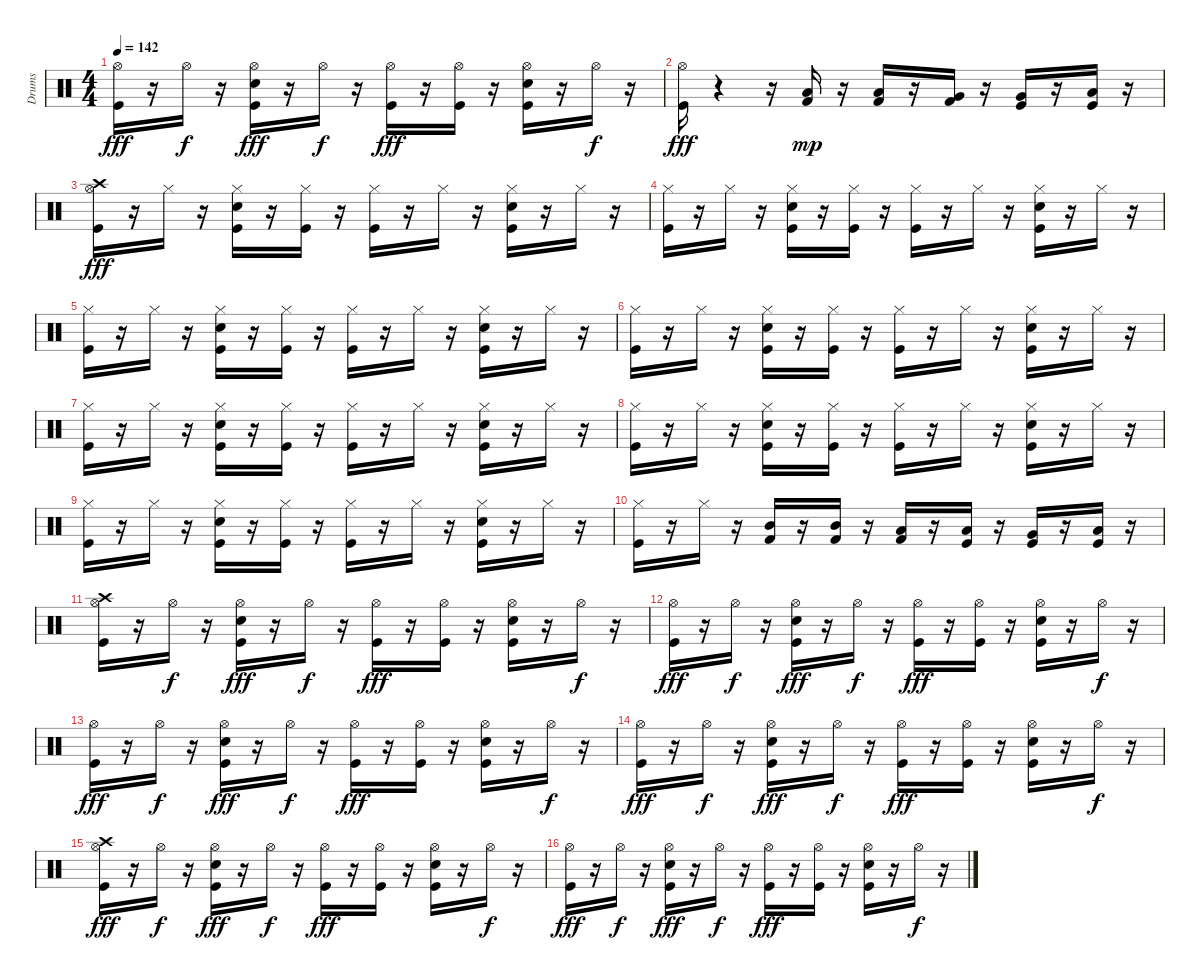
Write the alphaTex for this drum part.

\track ("Drums" "Drums") {instrument percussion}
\staff {score}
\articulation defaults
\ts (4 4)
\tempo 142
\clef neutral
\ks c
("Kick (hit)" "Hi-Hat (open)").16{dy fff} r.16 "Hi-Hat (open)".16{dy f} r.16 ("Snare (hit) 2" "Kick (hit)" "Hi-Hat (open)").16{dy fff} r.16 "Hi-Hat (open)".16{dy f} r.16 ("Kick (hit)" "Hi-Hat (open)").16{dy fff} r.16 ("Kick (hit)" "Hi-Hat (open)").16 r.16 ("Kick (hit)" "Snare (hit) 2" "Hi-Hat (open)").16 r.16 "Hi-Hat (open)".16{dy f} r.16 |
("Kick (hit)" "Hi-Hat (open)").16{dy fff} r.4 r.16 ("Low Tom (hit)" "Kick (hit) 2").16{dy mp} r.16 ("Low Tom (hit)" "Kick (hit) 2").16 r.16 ("Very Low Tom (hit)" "Kick (hit) 2").16 r.16 ("Very Low Tom (hit)" "Kick (hit)").16 r.16 ("Low Floor Tom (hit)" "Kick (hit)").16 r.16 |
("Kick (hit)" "Hi-Hat (open)" "Crash high (hit)").16{dy fff} r.16 "Hi-Hat (closed)".16 r.16 ("Snare (hit) 2" "Kick (hit)" "Hi-Hat (closed)").16 r.16 ("Kick (hit)" "Hi-Hat (closed)").16 r.16 ("Kick (hit)" "Hi-Hat (closed)").16 r.16 "Hi-Hat (closed)".16 r.16 ("Snare (hit) 2" "Kick (hit)" "Hi-Hat (closed)").16 r.16 "Hi-Hat (closed)".16 r.16 |
("Kick (hit)" "Hi-Hat (closed)").16 r.16 "Hi-Hat (closed)".16 r.16 ("Snare (hit) 2" "Kick (hit)" "Hi-Hat (closed)").16 r.16 ("Kick (hit)" "Hi-Hat (closed)").16 r.16 ("Kick (hit)" "Hi-Hat (closed)").16 r.16 "Hi-Hat (closed)".16 r.16 ("Snare (hit) 2" "Kick (hit)" "Hi-Hat (closed)").16 r.16 "Hi-Hat (closed)".16 r.16 |
("Hi-Hat (closed)" "Kick (hit)").16 r.16 "Hi-Hat (closed)".16 r.16 ("Snare (hit) 2" "Kick (hit)" "Hi-Hat (closed)").16 r.16 ("Kick (hit)" "Hi-Hat (closed)").16 r.16 ("Kick (hit)" "Hi-Hat (closed)").16 r.16 "Hi-Hat (closed)".16 r.16 ("Snare (hit) 2" "Kick (hit)" "Hi-Hat (closed)").16 r.16 "Hi-Hat (closed)".16 r.16 |
("Hi-Hat (closed)" "Kick (hit)").16 r.16 "Hi-Hat (closed)".16 r.16 ("Snare (hit) 2" "Kick (hit)" "Hi-Hat (closed)").16 r.16 ("Kick (hit)" "Hi-Hat (closed)").16 r.16 ("Kick (hit)" "Hi-Hat (closed)").16 r.16 "Hi-Hat (closed)".16 r.16 ("Snare (hit) 2" "Kick (hit)" "Hi-Hat (closed)").16 r.16 "Hi-Hat (closed)".16 r.16 |
("Hi-Hat (closed)" "Kick (hit)").16 r.16 "Hi-Hat (closed)".16 r.16 ("Snare (hit) 2" "Kick (hit)" "Hi-Hat (closed)").16 r.16 ("Kick (hit)" "Hi-Hat (closed)").16 r.16 ("Kick (hit)" "Hi-Hat (closed)").16 r.16 "Hi-Hat (closed)".16 r.16 ("Snare (hit) 2" "Kick (hit)" "Hi-Hat (closed)").16 r.16 "Hi-Hat (closed)".16 r.16 |
("Hi-Hat (closed)" "Kick (hit)").16 r.16 "Hi-Hat (closed)".16 r.16 ("Snare (hit) 2" "Kick (hit)" "Hi-Hat (closed)").16 r.16 ("Kick (hit)" "Hi-Hat (closed)").16 r.16 ("Kick (hit)" "Hi-Hat (closed)").16 r.16 "Hi-Hat (closed)".16 r.16 ("Snare (hit) 2" "Kick (hit)" "Hi-Hat (closed)").16 r.16 "Hi-Hat (closed)".16 r.16 |
("Hi-Hat (closed)" "Kick (hit)").16 r.16 "Hi-Hat (closed)".16 r.16 ("Snare (hit) 2" "Kick (hit)" "Hi-Hat (closed)").16 r.16 ("Kick (hit)" "Hi-Hat (closed)").16 r.16 ("Kick (hit)" "Hi-Hat (closed)").16 r.16 "Hi-Hat (closed)".16 r.16 ("Snare (hit) 2" "Kick (hit)" "Hi-Hat (closed)").16 r.16 "Hi-Hat (closed)".16 r.16 |
("Hi-Hat (closed)" "Kick (hit)").16 r.16 "Hi-Hat (closed)".16 r.16 ("Kick (hit) 2" "Mid Tom (hit)").16 r.16 ("Kick (hit) 2" "Mid Tom (hit)").16 r.16 ("Kick (hit) 2" "Low Tom (hit)").16 r.16 ("Kick (hit)" "Low Tom (hit)").16 r.16 ("Kick (hit)" "Very Low Tom (hit)").16 r.16 ("Kick (hit)" "Low Floor Tom (hit)").16 r.16 |
("Crash high (hit)" "Hi-Hat (open)" "Kick (hit)").16 r.16 "Hi-Hat (open)".16{dy f} r.16 ("Snare (hit) 2" "Kick (hit)" "Hi-Hat (open)").16{dy fff} r.16 "Hi-Hat (open)".16{dy f} r.16 ("Kick (hit)" "Hi-Hat (open)").16{dy fff} r.16 ("Kick (hit)" "Hi-Hat (open)").16 r.16 ("Kick (hit)" "Snare (hit) 2" "Hi-Hat (open)").16 r.16 "Hi-Hat (open)".16{dy f} r.16 |
("Kick (hit)" "Hi-Hat (open)").16{dy fff} r.16 "Hi-Hat (open)".16{dy f} r.16 ("Snare (hit) 2" "Kick (hit)" "Hi-Hat (open)").16{dy fff} r.16 "Hi-Hat (open)".16{dy f} r.16 ("Kick (hit)" "Hi-Hat (open)").16{dy fff} r.16 ("Kick (hit)" "Hi-Hat (open)").16 r.16 ("Kick (hit)" "Snare (hit) 2" "Hi-Hat (open)").16 r.16 "Hi-Hat (open)".16{dy f} r.16 |
("Hi-Hat (open)" "Kick (hit)").16{dy fff} r.16 "Hi-Hat (open)".16{dy f} r.16 ("Snare (hit) 2" "Kick (hit)" "Hi-Hat (open)").16{dy fff} r.16 "Hi-Hat (open)".16{dy f} r.16 ("Kick (hit)" "Hi-Hat (open)").16{dy fff} r.16 ("Kick (hit)" "Hi-Hat (open)").16 r.16 ("Kick (hit)" "Snare (hit) 2" "Hi-Hat (open)").16 r.16 "Hi-Hat (open)".16{dy f} r.16 |
("Hi-Hat (open)" "Kick (hit)").16{dy fff} r.16 "Hi-Hat (open)".16{dy f} r.16 ("Snare (hit) 2" "Kick (hit)" "Hi-Hat (open)").16{dy fff} r.16 "Hi-Hat (open)".16{dy f} r.16 ("Kick (hit)" "Hi-Hat (open)").16{dy fff} r.16 ("Kick (hit)" "Hi-Hat (open)").16 r.16 ("Kick (hit)" "Snare (hit) 2" "Hi-Hat (open)").16 r.16 "Hi-Hat (open)".16{dy f} r.16 |
("Hi-Hat (open)" "Kick (hit)" "Crash high (hit)").16{dy fff} r.16 "Hi-Hat (open)".16{dy f} r.16 ("Snare (hit) 2" "Kick (hit)" "Hi-Hat (open)").16{dy fff} r.16 "Hi-Hat (open)".16{dy f} r.16 ("Kick (hit)" "Hi-Hat (open)").16{dy fff} r.16 ("Kick (hit)" "Hi-Hat (open)").16 r.16 ("Kick (hit)" "Snare (hit) 2" "Hi-Hat (open)").16 r.16 "Hi-Hat (open)".16{dy f} r.16 |
("Hi-Hat (open)" "Kick (hit)").16{dy fff} r.16 "Hi-Hat (open)".16{dy f} r.16 ("Snare (hit) 2" "Kick (hit)" "Hi-Hat (open)").16{dy fff} r.16 "Hi-Hat (open)".16{dy f} r.16 ("Kick (hit)" "Hi-Hat (open)").16{dy fff} r.16 ("Kick (hit)" "Hi-Hat (open)").16 r.16 ("Kick (hit)" "Snare (hit) 2" "Hi-Hat (open)").16 r.16 "Hi-Hat (open)".16{dy f} r.16
